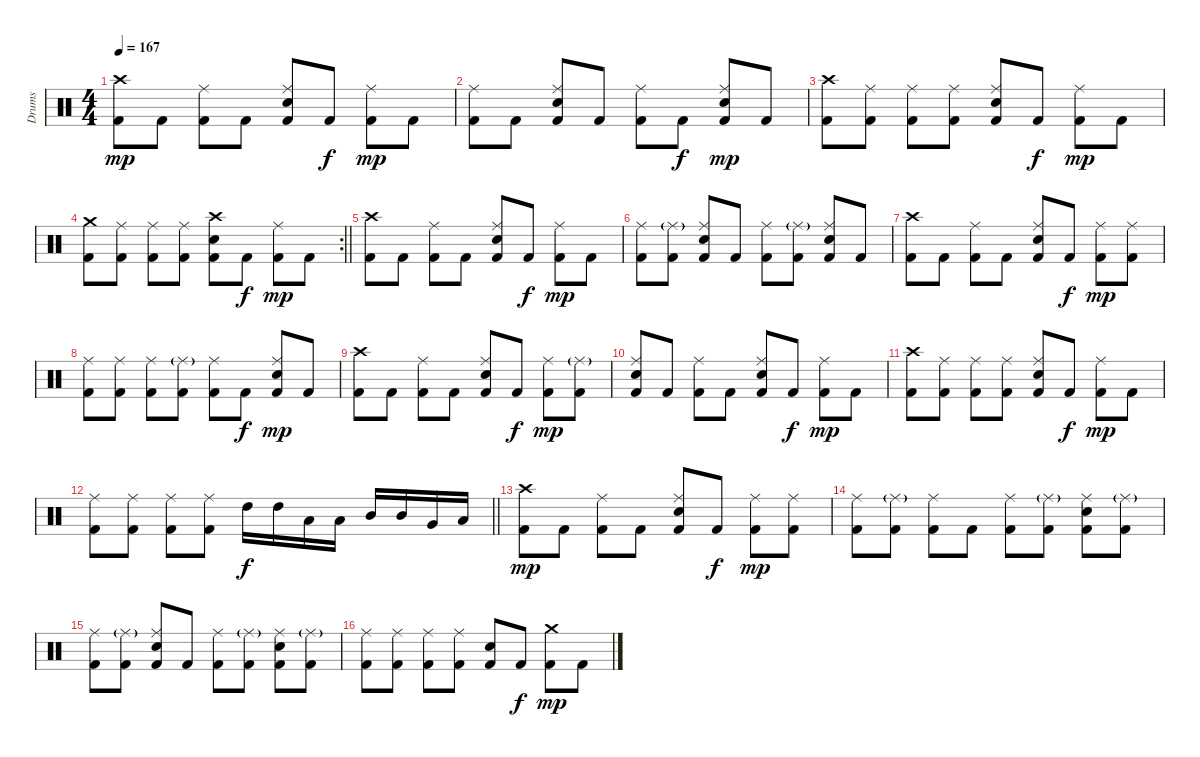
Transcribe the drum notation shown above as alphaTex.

\track ("Drums" "Drums") {instrument percussion}
\staff {score}
\articulation defaults
\ts (4 4)
\tempo 167
\clef neutral
\ks c
("Crash high (hit)" "Kick (hit) 2").8{dy mp} "Kick (hit) 2".8 ("Ride (middle)" "Kick (hit) 2").8 "Kick (hit) 2".8 ("Ride (middle)" "Electric Snare (hit)" "Kick (hit) 2").8 "Kick (hit) 2".8{dy f} ("Ride (middle)" "Kick (hit) 2").8{dy mp} "Kick (hit) 2".8 |
("Ride (middle)" "Kick (hit) 2").8 "Kick (hit) 2".8 ("Ride (middle)" "Electric Snare (hit)" "Kick (hit) 2").8 "Kick (hit) 2".8 ("Ride (middle)" "Kick (hit) 2").8 "Kick (hit) 2".8{dy f} ("Ride (middle)" "Electric Snare (hit)" "Kick (hit) 2").8{dy mp} "Kick (hit) 2".8 |
("Crash high (hit)" "Kick (hit) 2").8 ("Ride (middle)" "Kick (hit) 2").8 ("Ride (middle)" "Kick (hit) 2").8 ("Ride (middle)" "Kick (hit) 2").8 ("Ride (middle)" "Electric Snare (hit)" "Kick (hit) 2").8 "Kick (hit) 2".8{dy f} ("Ride (middle)" "Kick (hit) 2").8{dy mp} "Kick (hit) 2".8 |
\rc 2
\barLineRight lightlight
("Crash medium (hit)" "Kick (hit) 2").8 ("Ride (middle)" "Kick (hit) 2").8 ("Ride (middle)" "Kick (hit) 2").8 ("Ride (middle)" "Kick (hit) 2").8 ("Crash high (hit)" "Electric Snare (hit)" "Kick (hit) 2").8 "Kick (hit) 2".8{dy f} ("Ride (middle)" "Kick (hit) 2").8{dy mp} "Kick (hit) 2".8 |
\section ("" "")
("Crash high (hit)" "Kick (hit) 2").8 "Kick (hit) 2".8 ("Ride (middle)" "Kick (hit) 2").8 "Kick (hit) 2".8 ("Ride (middle)" "Electric Snare (hit)" "Kick (hit) 2").8 "Kick (hit) 2".8{dy f} ("Ride (middle)" "Kick (hit) 2").8{dy mp} "Kick (hit) 2".8 |
("Ride (middle)" "Kick (hit) 2").8 ("Ride (middle)"{g} "Kick (hit) 2").8 ("Ride (middle)" "Electric Snare (hit)" "Kick (hit) 2").8 "Kick (hit) 2".8 ("Ride (middle)" "Kick (hit) 2").8 ("Ride (middle)"{g} "Kick (hit) 2").8 ("Ride (middle)" "Electric Snare (hit)" "Kick (hit) 2").8 "Kick (hit) 2".8 |
("Crash high (hit)" "Kick (hit) 2").8 "Kick (hit) 2".8 ("Ride (middle)" "Kick (hit) 2").8 "Kick (hit) 2".8 ("Ride (middle)" "Electric Snare (hit)" "Kick (hit) 2").8 "Kick (hit) 2".8{dy f} ("Ride (middle)" "Kick (hit) 2").8{dy mp} ("Ride (middle)" "Kick (hit) 2").8 |
("Ride (middle)" "Kick (hit) 2").8 ("Ride (middle)" "Kick (hit) 2").8 ("Ride (middle)" "Kick (hit) 2").8 ("Ride (middle)"{g} "Kick (hit) 2").8 ("Ride (middle)" "Kick (hit) 2").8 "Kick (hit) 2".8{dy f} ("Ride (middle)" "Electric Snare (hit)" "Kick (hit) 2").8{dy mp} "Kick (hit) 2".8 |
("Crash high (hit)" "Kick (hit) 2").8 "Kick (hit) 2".8 ("Ride (middle)" "Kick (hit) 2").8 "Kick (hit) 2".8 ("Ride (middle)" "Electric Snare (hit)" "Kick (hit) 2").8 "Kick (hit) 2".8{dy f} ("Ride (middle)" "Kick (hit) 2").8{dy mp} ("Ride (middle)"{g} "Kick (hit) 2").8 |
("Ride (middle)" "Electric Snare (hit)" "Kick (hit) 2").8 "Kick (hit) 2".8 ("Ride (middle)" "Kick (hit) 2").8 "Kick (hit) 2".8 ("Ride (middle)" "Electric Snare (hit)" "Kick (hit) 2").8 "Kick (hit) 2".8{dy f} ("Ride (middle)" "Kick (hit) 2").8{dy mp} "Kick (hit) 2".8 |
("Crash high (hit)" "Kick (hit) 2").8 ("Ride (middle)" "Kick (hit) 2").8 ("Ride (middle)" "Kick (hit) 2").8 ("Ride (middle)" "Kick (hit) 2").8 ("Ride (middle)" "Electric Snare (hit)" "Kick (hit) 2").8 "Kick (hit) 2".8{dy f} ("Ride (middle)" "Kick (hit) 2").8{dy mp} "Kick (hit) 2".8 |
\barLineRight lightlight
("Ride (middle)" "Kick (hit) 2").8 ("Ride (middle)" "Kick (hit) 2").8 ("Ride (middle)" "Kick (hit) 2").8 ("Ride (middle)" "Kick (hit) 2").8 "High Tom (hit)".16{dy f} "High Tom (hit)".16 "Low Tom (hit)".16 "Low Tom (hit)".16 "Mid Tom (hit)".16 "Mid Tom (hit)".16 "Very Low Tom (hit)".16 "Low Floor Tom (hit)".16 |
\section ("" "")
("Crash high (hit)" "Kick (hit) 2").8{dy mp} "Kick (hit) 2".8 ("Ride (middle)" "Kick (hit) 2").8 "Kick (hit) 2".8 ("Ride (middle)" "Electric Snare (hit)" "Kick (hit) 2").8 "Kick (hit) 2".8{dy f} ("Ride (middle)" "Kick (hit) 2").8{dy mp} ("Ride (middle)" "Kick (hit) 2").8 |
("Ride (middle)" "Kick (hit) 2").8 ("Ride (middle)"{g} "Kick (hit) 2").8 ("Ride (middle)" "Kick (hit) 2").8 "Kick (hit) 2".8 ("Ride (middle)" "Kick (hit) 2").8 ("Ride (middle)"{g} "Kick (hit) 2").8 ("Ride (middle)" "Electric Snare (hit)" "Kick (hit) 2").8 ("Ride (middle)"{g} "Kick (hit) 2").8 |
("Ride (middle)" "Kick (hit) 2").8 ("Ride (middle)"{g} "Kick (hit) 2").8 ("Ride (middle)" "Electric Snare (hit)" "Kick (hit) 2").8 "Kick (hit) 2".8 ("Ride (middle)" "Kick (hit) 2").8 ("Ride (middle)"{g} "Kick (hit) 2").8 ("Ride (middle)" "Electric Snare (hit)" "Kick (hit) 2").8 ("Ride (middle)"{g} "Kick (hit) 2").8 |
("Ride (middle)" "Kick (hit) 2").8 ("Ride (middle)" "Kick (hit) 2").8 ("Ride (middle)" "Kick (hit) 2").8 ("Ride (middle)" "Kick (hit) 2").8 ("Electric Snare (hit)" "Kick (hit) 2").8 "Kick (hit) 2".8{dy f} ("Crash medium (hit)" "Kick (hit) 2").8{dy mp} "Kick (hit) 2".8
